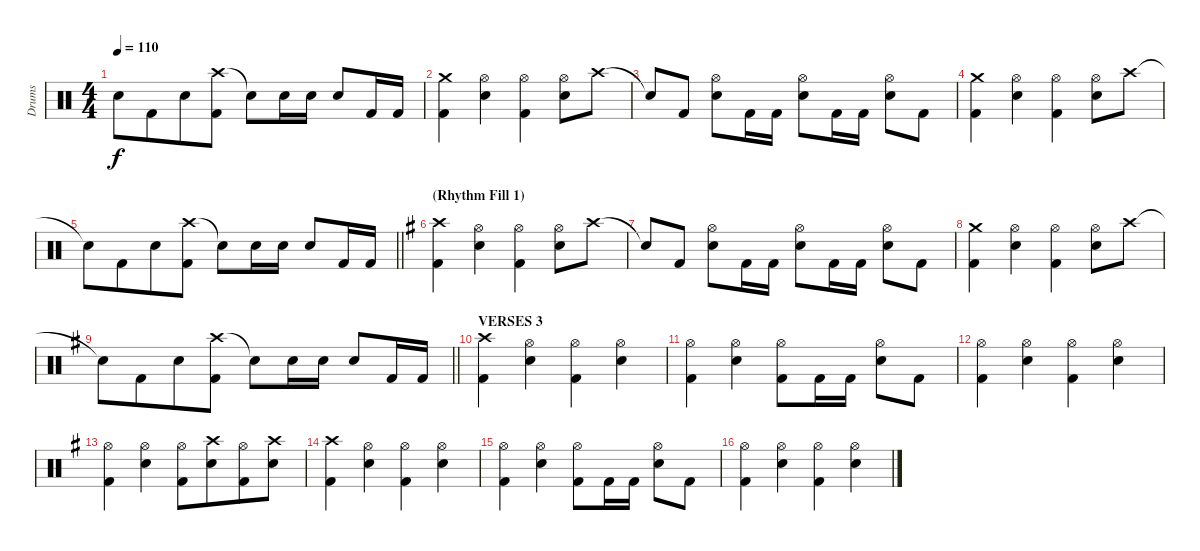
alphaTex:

\track ("Drums" "Drums") {instrument percussion}
\staff {score}
\articulation defaults
\ts (4 4)
\tempo 110
\clef neutral
\ks aminor "Snare (hit)"{t}.8{dy f} "Kick (hit) 2".8{beam merge} "Electric Snare (hit)".8
("Crash high (hit)" "Kick (hit) 2").8 "Snare (hit)"{t}.8 "Electric Snare (hit)".16 "Electric Snare (hit)".16 "Electric Snare (hit)".8 "Kick (hit) 2".16 "Kick (hit) 2".16 |
("Crash medium (hit)" "Kick (hit) 2").4 ("Hi-Hat (open)" "Electric Snare (hit)").4 ("Hi-Hat (open)" "Kick (hit) 2").4 ("Hi-Hat (open)" "Electric Snare (hit)").8 "Crash high (hit)".8 |
"Snare (hit)"{t}.8 "Kick (hit) 2".8 ("Hi-Hat (open)" "Electric Snare (hit)").8 "Kick (hit) 2".16 "Kick (hit) 2".16 ("Hi-Hat (open)" "Electric Snare (hit)").8 "Kick (hit) 2".16 "Kick (hit) 2".16 ("Hi-Hat (open)" "Electric Snare (hit)").8 "Kick (hit) 2".8 |
("Crash medium (hit)" "Kick (hit) 2").4 ("Hi-Hat (open)" "Electric Snare (hit)").4 ("Hi-Hat (open)" "Kick (hit) 2").4 ("Hi-Hat (open)" "Electric Snare (hit)").8 "Crash high (hit)".8 |
\barLineRight lightlight "Snare (hit)"{t}.8 "Kick (hit) 2".8{beam merge} "Electric Snare (hit)".8
("Crash high (hit)" "Kick (hit) 2").8 "Snare (hit)"{t}.8 "Electric Snare (hit)".16 "Electric Snare (hit)".16 "Electric Snare (hit)".8 "Kick (hit) 2".16 "Kick (hit) 2".16 |
\section ("" "(Rhythm Fill 1)")
\ks eminor
("Crash high (hit)" "Kick (hit) 2").4 ("Hi-Hat (open)" "Electric Snare (hit)").4 ("Hi-Hat (open)" "Kick (hit) 2").4 ("Hi-Hat (open)" "Electric Snare (hit)").8 "Crash high (hit)".8 |
"Snare (hit)"{t}.8 "Kick (hit) 2".8 ("Hi-Hat (open)" "Electric Snare (hit)").8 "Kick (hit) 2".16 "Kick (hit) 2".16 ("Hi-Hat (open)" "Electric Snare (hit)").8 "Kick (hit) 2".16 "Kick (hit) 2".16 ("Hi-Hat (open)" "Electric Snare (hit)").8 "Kick (hit) 2".8 |
("Crash medium (hit)" "Kick (hit) 2").4 ("Hi-Hat (open)" "Electric Snare (hit)").4 ("Hi-Hat (open)" "Kick (hit) 2").4 ("Hi-Hat (open)" "Electric Snare (hit)").8 "Crash high (hit)".8 |
\barLineRight lightlight "Snare (hit)"{t}.8 "Kick (hit) 2".8{beam merge} "Electric Snare (hit)".8
("Crash high (hit)" "Kick (hit) 2").8 "Snare (hit)"{t}.8 "Electric Snare (hit)".16 "Electric Snare (hit)".16 "Electric Snare (hit)".8 "Kick (hit) 2".16 "Kick (hit) 2".16 |
\section ("" "VERSES 3")
("Crash high (hit)" "Kick (hit) 2").4 ("Hi-Hat (open)" "Electric Snare (hit)").4 ("Hi-Hat (open)" "Kick (hit) 2").4 ("Hi-Hat (open)" "Electric Snare (hit)").4 |
("Hi-Hat (open)" "Kick (hit) 2").4 ("Hi-Hat (open)" "Electric Snare (hit)").4 ("Hi-Hat (open)" "Kick (hit) 2").8 "Kick (hit) 2".16 "Kick (hit) 2".16 ("Hi-Hat (open)" "Electric Snare (hit)").8 "Kick (hit) 2".8 |
("Hi-Hat (open)" "Kick (hit) 2").4 ("Hi-Hat (open)" "Electric Snare (hit)").4 ("Hi-Hat (open)" "Kick (hit) 2").4 ("Hi-Hat (open)" "Electric Snare (hit)").4 |
("Hi-Hat (open)" "Kick (hit) 2").4 ("Hi-Hat (open)" "Electric Snare (hit)").4 ("Hi-Hat (open)" "Kick (hit) 2").8 ("Crash high (hit)" "Electric Snare (hit)").8{beam merge} ("Hi-Hat (open)" "Kick (hit) 2").8 ("Crash high (hit)" "Electric Snare (hit)").8 |
("Crash high (hit)" "Kick (hit) 2").4 ("Hi-Hat (open)" "Electric Snare (hit)").4 ("Hi-Hat (open)" "Kick (hit) 2").4 ("Hi-Hat (open)" "Electric Snare (hit)").4 |
("Hi-Hat (open)" "Kick (hit) 2").4 ("Hi-Hat (open)" "Electric Snare (hit)").4 ("Hi-Hat (open)" "Kick (hit) 2").8 "Kick (hit) 2".16 "Kick (hit) 2".16 ("Hi-Hat (open)" "Electric Snare (hit)").8 "Kick (hit) 2".8 |
("Hi-Hat (open)" "Kick (hit) 2").4 ("Hi-Hat (open)" "Electric Snare (hit)").4 ("Hi-Hat (open)" "Kick (hit) 2").4 ("Hi-Hat (open)" "Electric Snare (hit)").4
